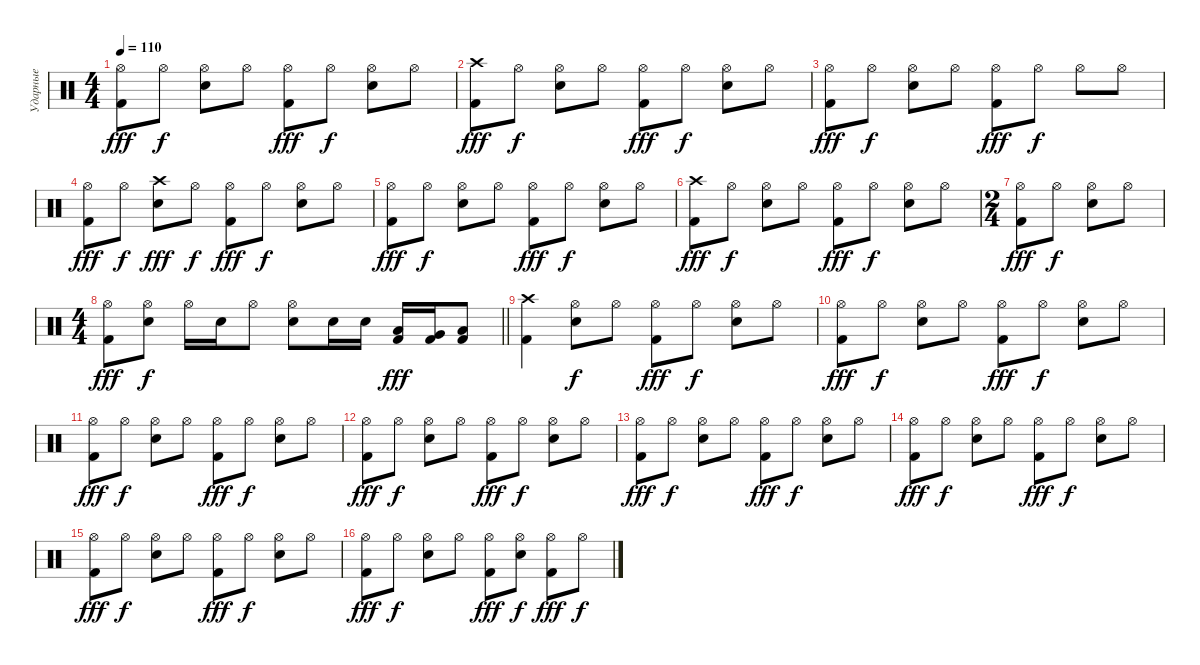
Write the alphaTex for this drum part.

\track ("Ударные" "Ударные") {instrument percussion}
\staff
\articulation defaults
\ts (4 4)
\tempo 110
\clef neutral
\ks c
("Kick (hit) 2" "Hi-Hat (open)").8{dy fff} "Hi-Hat (open)".8{dy f} ("Snare (hit) 2" "Hi-Hat (open)").8 "Hi-Hat (open)".8 ("Kick (hit) 2" "Hi-Hat (open)").8{dy fff} "Hi-Hat (open)".8{dy f} ("Snare (hit) 2" "Hi-Hat (open)").8 "Hi-Hat (open)".8 |
("Kick (hit) 2" "Crash high (hit)").8{dy fff} "Hi-Hat (open)".8{dy f} ("Snare (hit) 2" "Hi-Hat (open)").8 "Hi-Hat (open)".8 ("Kick (hit) 2" "Hi-Hat (open)").8{dy fff} "Hi-Hat (open)".8{dy f} ("Snare (hit) 2" "Hi-Hat (open)").8 "Hi-Hat (open)".8 |
("Kick (hit) 2" "Hi-Hat (open)").8{dy fff} "Hi-Hat (open)".8{dy f} ("Snare (hit) 2" "Hi-Hat (open)").8 "Hi-Hat (open)".8 ("Kick (hit) 2" "Hi-Hat (open)").8{dy fff} "Hi-Hat (open)".8{dy f} "Hi-Hat (open)".8 "Hi-Hat (open)".8 |
("Kick (hit) 2" "Hi-Hat (open)").8{dy fff} "Hi-Hat (open)".8{dy f} ("Snare (hit) 2" "Crash high (hit)").8{dy fff} "Hi-Hat (open)".8{dy f} ("Kick (hit) 2" "Hi-Hat (open)").8{dy fff} "Hi-Hat (open)".8{dy f} ("Snare (hit) 2" "Hi-Hat (open)").8 "Hi-Hat (open)".8 |
("Kick (hit) 2" "Hi-Hat (open)").8{dy fff} "Hi-Hat (open)".8{dy f} ("Snare (hit) 2" "Hi-Hat (open)").8 "Hi-Hat (open)".8 ("Kick (hit) 2" "Hi-Hat (open)").8{dy fff} "Hi-Hat (open)".8{dy f} ("Snare (hit) 2" "Hi-Hat (open)").8 "Hi-Hat (open)".8 |
("Kick (hit) 2" "Crash high (hit)").8{dy fff} "Hi-Hat (open)".8{dy f} ("Snare (hit) 2" "Hi-Hat (open)").8 "Hi-Hat (open)".8 ("Kick (hit) 2" "Hi-Hat (open)").8{dy fff} "Hi-Hat (open)".8{dy f} ("Snare (hit) 2" "Hi-Hat (open)").8 "Hi-Hat (open)".8 |
\ts (2 4)
("Kick (hit) 2" "Hi-Hat (open)").8{dy fff} "Hi-Hat (open)".8{dy f} ("Snare (hit) 2" "Hi-Hat (open)").8 "Hi-Hat (open)".8 |
\ts (4 4)
\barLineRight lightlight
("Kick (hit) 2" "Hi-Hat (open)").8{dy fff} ("Snare (hit) 2" "Hi-Hat (open)").8{dy f} "Hi-Hat (open)".16 "Snare (hit) 2".16 "Hi-Hat (open)".8 ("Snare (hit) 2" "Hi-Hat (open)").8 "Snare (hit) 2".16 "Snare (hit) 2".16 ("Kick (hit) 2" "Low Tom (hit)").16{dy fff} ("Kick (hit) 2" "Very Low Tom (hit)").16 ("Kick (hit) 2" "Low Floor Tom (hit)").8 |
("Kick (hit) 2" "Crash high (hit)").4 ("Snare (hit) 2" "Hi-Hat (open)").8{dy f} "Hi-Hat (open)".8 ("Kick (hit) 2" "Hi-Hat (open)").8{dy fff} "Hi-Hat (open)".8{dy f} ("Snare (hit) 2" "Hi-Hat (open)").8 "Hi-Hat (open)".8 |
("Kick (hit) 2" "Hi-Hat (open)").8{dy fff} "Hi-Hat (open)".8{dy f} ("Snare (hit) 2" "Hi-Hat (open)").8 "Hi-Hat (open)".8 ("Kick (hit) 2" "Hi-Hat (open)").8{dy fff} "Hi-Hat (open)".8{dy f} ("Snare (hit) 2" "Hi-Hat (open)").8 "Hi-Hat (open)".8 |
("Kick (hit) 2" "Hi-Hat (open)").8{dy fff} "Hi-Hat (open)".8{dy f} ("Snare (hit) 2" "Hi-Hat (open)").8 "Hi-Hat (open)".8 ("Kick (hit) 2" "Hi-Hat (open)").8{dy fff} "Hi-Hat (open)".8{dy f} ("Snare (hit) 2" "Hi-Hat (open)").8 "Hi-Hat (open)".8 |
("Kick (hit) 2" "Hi-Hat (open)").8{dy fff} "Hi-Hat (open)".8{dy f} ("Snare (hit) 2" "Hi-Hat (open)").8 "Hi-Hat (open)".8 ("Kick (hit) 2" "Hi-Hat (open)").8{dy fff} "Hi-Hat (open)".8{dy f} ("Snare (hit) 2" "Hi-Hat (open)").8 "Hi-Hat (open)".8 |
("Kick (hit) 2" "Hi-Hat (open)").8{dy fff} "Hi-Hat (open)".8{dy f} ("Snare (hit) 2" "Hi-Hat (open)").8 "Hi-Hat (open)".8 ("Kick (hit) 2" "Hi-Hat (open)").8{dy fff} "Hi-Hat (open)".8{dy f} ("Snare (hit) 2" "Hi-Hat (open)").8 "Hi-Hat (open)".8 |
("Kick (hit) 2" "Hi-Hat (open)").8{dy fff} "Hi-Hat (open)".8{dy f} ("Snare (hit) 2" "Hi-Hat (open)").8 "Hi-Hat (open)".8 ("Kick (hit) 2" "Hi-Hat (open)").8{dy fff} "Hi-Hat (open)".8{dy f} ("Snare (hit) 2" "Hi-Hat (open)").8 "Hi-Hat (open)".8 |
("Kick (hit) 2" "Hi-Hat (open)").8{dy fff} "Hi-Hat (open)".8{dy f} ("Snare (hit) 2" "Hi-Hat (open)").8 "Hi-Hat (open)".8 ("Kick (hit) 2" "Hi-Hat (open)").8{dy fff} "Hi-Hat (open)".8{dy f} ("Snare (hit) 2" "Hi-Hat (open)").8 "Hi-Hat (open)".8 |
("Kick (hit) 2" "Hi-Hat (open)").8{dy fff} "Hi-Hat (open)".8{dy f} ("Snare (hit) 2" "Hi-Hat (open)").8 "Hi-Hat (open)".8 ("Kick (hit) 2" "Hi-Hat (open)").8{dy fff} ("Snare (hit) 2" "Hi-Hat (open)").8{dy f} ("Kick (hit) 2" "Hi-Hat (open)").8{dy fff} "Hi-Hat (open)".8{dy f}
